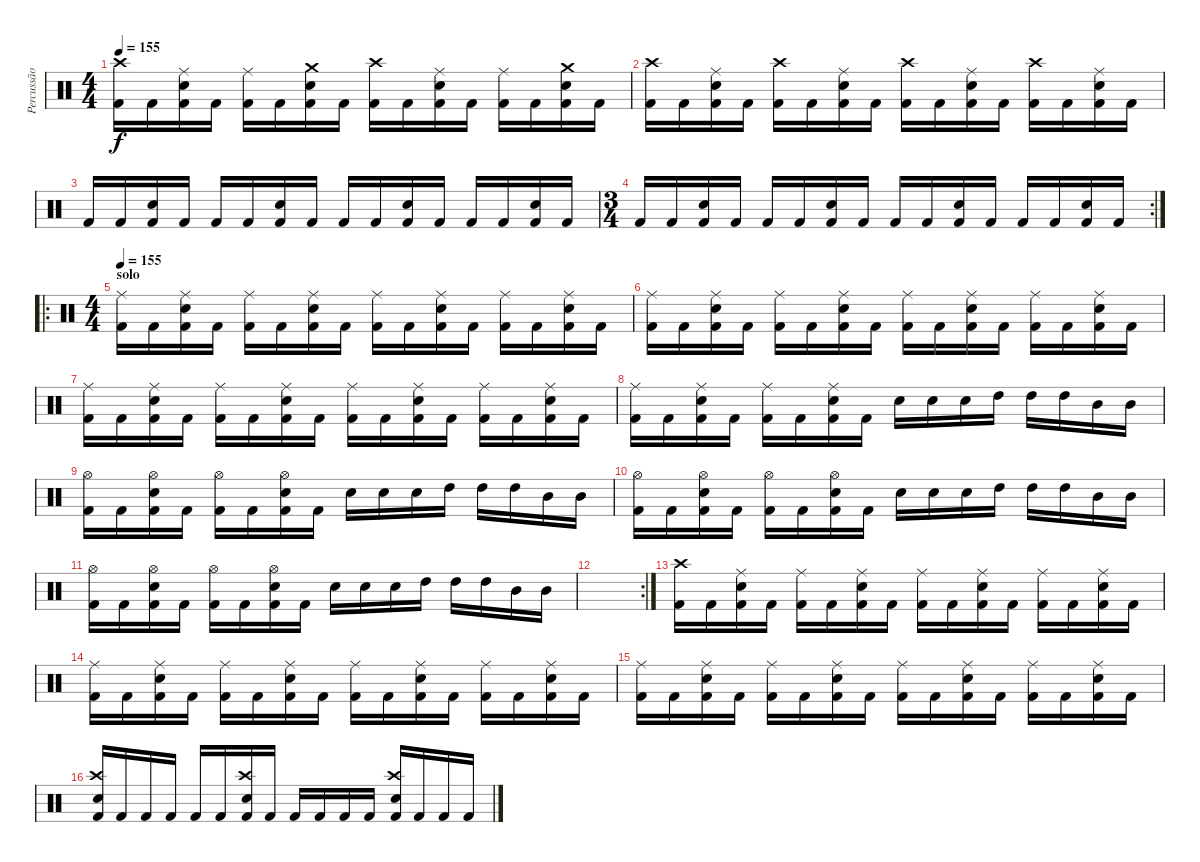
\track ("Percussão" "Percussão") {instrument percussion}
\staff {score}
\articulation defaults
\ts (4 4)
\tempo 155
\clef neutral
\ks c
("Kick (hit) 2" "Crash high (hit)").16{dy f} "Kick (hit) 2".16 ("Kick (hit) 2" "Snare (hit) 2" "Ride (middle)").16 "Kick (hit) 2".16 ("Kick (hit) 2" "Ride (middle)").16 "Kick (hit) 2".16 ("Kick (hit) 2" "Snare (hit) 2" "Crash medium (hit)").16 "Kick (hit) 2".16 ("Kick (hit) 2" "Crash high (hit)").16 "Kick (hit) 2".16 ("Kick (hit) 2" "Snare (hit) 2" "Ride (middle)").16 "Kick (hit) 2".16 ("Kick (hit) 2" "Ride (middle)").16 "Kick (hit) 2".16 ("Kick (hit) 2" "Snare (hit) 2" "Crash medium (hit)").16 "Kick (hit) 2".16 |
("Kick (hit) 2" "Crash high (hit)").16 "Kick (hit) 2".16 ("Kick (hit) 2" "Snare (hit) 2" "Ride (middle)").16 "Kick (hit) 2".16 ("Kick (hit) 2" "Crash high (hit)").16 "Kick (hit) 2".16 ("Kick (hit) 2" "Snare (hit) 2" "Ride (middle)").16 "Kick (hit) 2".16 ("Kick (hit) 2" "Crash high (hit)").16 "Kick (hit) 2".16 ("Kick (hit) 2" "Snare (hit) 2" "Ride (middle)").16 "Kick (hit) 2".16 ("Kick (hit) 2" "Crash high (hit)").16 "Kick (hit) 2".16 ("Kick (hit) 2" "Snare (hit) 2" "Ride (middle)").16 "Kick (hit) 2".16 |
"Kick (hit) 2".16 "Kick (hit) 2".16 ("Kick (hit) 2" "Snare (hit) 2").16 "Kick (hit) 2".16 "Kick (hit) 2".16 "Kick (hit) 2".16 ("Kick (hit) 2" "Snare (hit) 2").16 "Kick (hit) 2".16 "Kick (hit) 2".16 "Kick (hit) 2".16 ("Kick (hit) 2" "Snare (hit) 2").16 "Kick (hit) 2".16 "Kick (hit) 2".16 "Kick (hit) 2".16 ("Kick (hit) 2" "Snare (hit) 2").16 "Kick (hit) 2".16 |
\rc 2
\ts (3 4)
"Kick (hit) 2".16 "Kick (hit) 2".16 ("Kick (hit) 2" "Snare (hit) 2").16 "Kick (hit) 2".16 "Kick (hit) 2".16 "Kick (hit) 2".16 ("Kick (hit) 2" "Snare (hit) 2").16 "Kick (hit) 2".16 "Kick (hit) 2".16 "Kick (hit) 2".16 ("Kick (hit) 2" "Snare (hit) 2").16 "Kick (hit) 2".16 "Kick (hit) 2".16 "Kick (hit) 2".16 ("Kick (hit) 2" "Snare (hit) 2").16 "Kick (hit) 2".16 |
\ro
\ts (4 4)
\section ("" "solo")
\tempo 155
("Kick (hit) 2" "Ride (middle)").16 "Kick (hit) 2".16 ("Kick (hit) 2" "Ride (middle)" "Snare (hit) 2").16 "Kick (hit) 2".16 ("Kick (hit) 2" "Ride (middle)").16 "Kick (hit) 2".16 ("Kick (hit) 2" "Ride (middle)" "Snare (hit) 2").16 "Kick (hit) 2".16 ("Kick (hit) 2" "Ride (middle)").16 "Kick (hit) 2".16 ("Kick (hit) 2" "Ride (middle)" "Snare (hit) 2").16 "Kick (hit) 2".16 ("Kick (hit) 2" "Ride (middle)").16 "Kick (hit) 2".16 ("Kick (hit) 2" "Ride (middle)" "Snare (hit) 2").16 "Kick (hit) 2".16 |
("Kick (hit) 2" "Ride (middle)").16 "Kick (hit) 2".16 ("Kick (hit) 2" "Ride (middle)" "Snare (hit) 2").16 "Kick (hit) 2".16 ("Kick (hit) 2" "Ride (middle)").16 "Kick (hit) 2".16 ("Kick (hit) 2" "Ride (middle)" "Snare (hit) 2").16 "Kick (hit) 2".16 ("Kick (hit) 2" "Ride (middle)").16 "Kick (hit) 2".16 ("Kick (hit) 2" "Ride (middle)" "Snare (hit) 2").16 "Kick (hit) 2".16 ("Kick (hit) 2" "Ride (middle)").16 "Kick (hit) 2".16 ("Kick (hit) 2" "Ride (middle)" "Snare (hit) 2").16 "Kick (hit) 2".16 |
("Kick (hit) 2" "Ride (middle)").16 "Kick (hit) 2".16 ("Kick (hit) 2" "Ride (middle)" "Snare (hit) 2").16 "Kick (hit) 2".16 ("Kick (hit) 2" "Ride (middle)").16 "Kick (hit) 2".16 ("Kick (hit) 2" "Ride (middle)" "Snare (hit) 2").16 "Kick (hit) 2".16 ("Kick (hit) 2" "Ride (middle)").16 "Kick (hit) 2".16 ("Kick (hit) 2" "Ride (middle)" "Snare (hit) 2").16 "Kick (hit) 2".16 ("Kick (hit) 2" "Ride (middle)").16 "Kick (hit) 2".16 ("Kick (hit) 2" "Ride (middle)" "Snare (hit) 2").16 "Kick (hit) 2".16 |
("Kick (hit) 2" "Ride (middle)").16 "Kick (hit) 2".16 ("Kick (hit) 2" "Ride (middle)" "Snare (hit) 2").16 "Kick (hit) 2".16 ("Kick (hit) 2" "Ride (middle)").16 "Kick (hit) 2".16 ("Kick (hit) 2" "Ride (middle)" "Snare (hit) 2").16 "Kick (hit) 2".16 "Snare (hit) 2".16 "Snare (hit) 2".16 "Snare (hit) 2".16 "High Tom (hit)".16 "High Tom (hit)".16 "High Tom (hit)".16 "Mid Tom (hit)".16 "Mid Tom (hit)".16 |
("Kick (hit) 2" "Hi-Hat (open)").16 "Kick (hit) 2".16 ("Kick (hit) 2" "Hi-Hat (open)" "Snare (hit) 2").16 "Kick (hit) 2".16 ("Kick (hit) 2" "Hi-Hat (open)").16 "Kick (hit) 2".16 ("Kick (hit) 2" "Hi-Hat (open)" "Snare (hit) 2").16 "Kick (hit) 2".16 "Snare (hit) 2".16 "Snare (hit) 2".16 "Snare (hit) 2".16 "High Tom (hit)".16 "High Tom (hit)".16 "High Tom (hit)".16 "Mid Tom (hit)".16 "Mid Tom (hit)".16 |
("Kick (hit) 2" "Hi-Hat (open)").16 "Kick (hit) 2".16 ("Kick (hit) 2" "Hi-Hat (open)" "Snare (hit) 2").16 "Kick (hit) 2".16 ("Kick (hit) 2" "Hi-Hat (open)").16 "Kick (hit) 2".16 ("Kick (hit) 2" "Hi-Hat (open)" "Snare (hit) 2").16 "Kick (hit) 2".16 "Snare (hit) 2".16 "Snare (hit) 2".16 "Snare (hit) 2".16 "High Tom (hit)".16 "High Tom (hit)".16 "High Tom (hit)".16 "Mid Tom (hit)".16 "Mid Tom (hit)".16 |
("Kick (hit) 2" "Hi-Hat (open)").16 "Kick (hit) 2".16 ("Kick (hit) 2" "Hi-Hat (open)" "Snare (hit) 2").16 "Kick (hit) 2".16 ("Kick (hit) 2" "Hi-Hat (open)").16 "Kick (hit) 2".16 ("Kick (hit) 2" "Hi-Hat (open)" "Snare (hit) 2").16 "Kick (hit) 2".16 "Snare (hit) 2".16 "Snare (hit) 2".16 "Snare (hit) 2".16 "High Tom (hit)".16 "High Tom (hit)".16 "High Tom (hit)".16 "Mid Tom (hit)".16 "Mid Tom (hit)".16 |
\rc 2
|
("Kick (hit) 2" "Crash high (hit)").16 "Kick (hit) 2".16 ("Kick (hit) 2" "Snare (hit) 2" "Ride (middle)").16 "Kick (hit) 2".16 ("Kick (hit) 2" "Ride (middle)").16 "Kick (hit) 2".16 ("Kick (hit) 2" "Snare (hit) 2" "Ride (middle)").16 "Kick (hit) 2".16 ("Kick (hit) 2" "Ride (middle)").16 "Kick (hit) 2".16 ("Kick (hit) 2" "Snare (hit) 2" "Ride (middle)").16 "Kick (hit) 2".16 ("Kick (hit) 2" "Ride (middle)").16 "Kick (hit) 2".16 ("Kick (hit) 2" "Snare (hit) 2" "Ride (middle)").16 "Kick (hit) 2".16 |
("Kick (hit) 2" "Ride (middle)").16 "Kick (hit) 2".16 ("Kick (hit) 2" "Snare (hit) 2" "Ride (middle)").16 "Kick (hit) 2".16 ("Kick (hit) 2" "Ride (middle)").16 "Kick (hit) 2".16 ("Kick (hit) 2" "Snare (hit) 2" "Ride (middle)").16 "Kick (hit) 2".16 ("Kick (hit) 2" "Ride (middle)").16 "Kick (hit) 2".16 ("Kick (hit) 2" "Snare (hit) 2" "Ride (middle)").16 "Kick (hit) 2".16 ("Kick (hit) 2" "Ride (middle)").16 "Kick (hit) 2".16 ("Kick (hit) 2" "Snare (hit) 2" "Ride (middle)").16 "Kick (hit) 2".16 |
("Kick (hit) 2" "Ride (middle)").16 "Kick (hit) 2".16 ("Kick (hit) 2" "Snare (hit) 2" "Ride (middle)").16 "Kick (hit) 2".16 ("Kick (hit) 2" "Ride (middle)").16 "Kick (hit) 2".16 ("Kick (hit) 2" "Snare (hit) 2" "Ride (middle)").16 "Kick (hit) 2".16 ("Kick (hit) 2" "Ride (middle)").16 "Kick (hit) 2".16 ("Kick (hit) 2" "Snare (hit) 2" "Ride (middle)").16 "Kick (hit) 2".16 ("Kick (hit) 2" "Ride (middle)").16 "Kick (hit) 2".16 ("Kick (hit) 2" "Snare (hit) 2" "Ride (middle)").16 "Kick (hit) 2".16 |
("Kick (hit) 2" "Snare (hit) 2" "Crash high (hit)").16 "Kick (hit) 2".16 "Kick (hit) 2".16 "Kick (hit) 2".16 "Kick (hit) 2".16 "Kick (hit) 2".16 ("Kick (hit) 2" "Snare (hit) 2" "Crash high (hit)").16 "Kick (hit) 2".16 "Kick (hit) 2".16 "Kick (hit) 2".16 "Kick (hit) 2".16 "Kick (hit) 2".16 ("Kick (hit) 2" "Snare (hit) 2" "Crash high (hit)").16 "Kick (hit) 2".16 "Kick (hit) 2".16 "Kick (hit) 2".16
